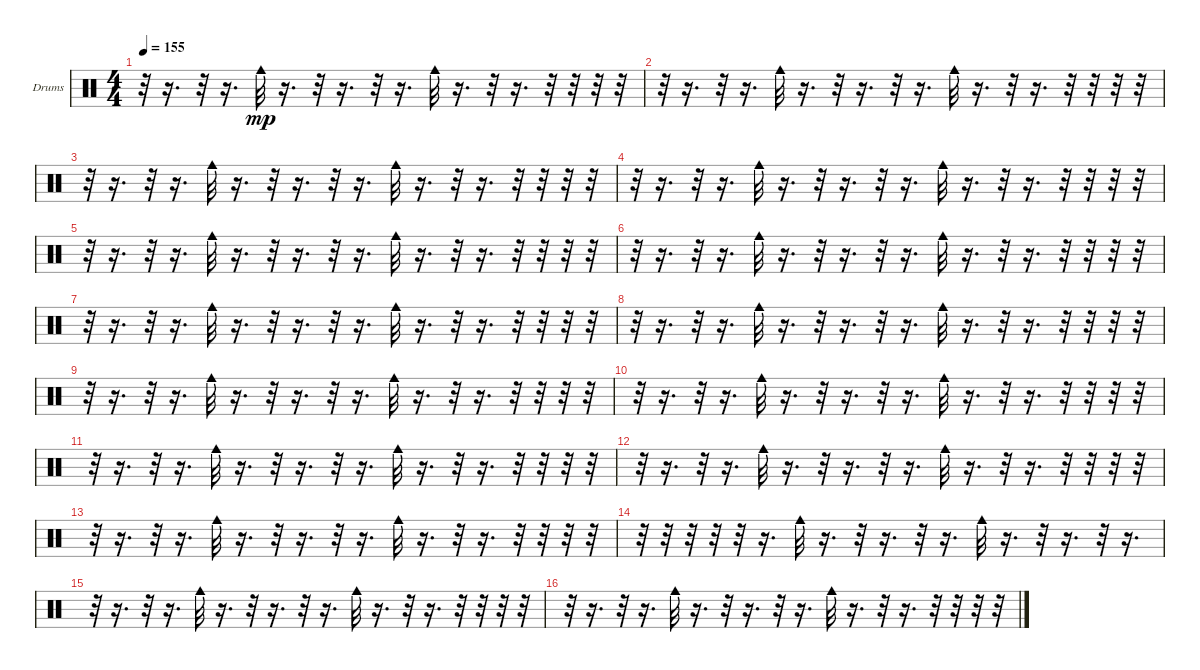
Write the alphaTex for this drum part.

\bracketExtendMode groupsimilarinstruments
\firstSystemTrackNameOrientation horizontal
\otherSystemsTrackNameOrientation horizontal
\track ("Е. Кулаков" "Drums") {instrument percussion}
\staff {score}
\articulation defaults
\ts (4 4)
\tempo 155
\clef neutral
\ks c
r.32{dy mp} r.16{d} r.32 r.16{d} "Cowbell medium (hit)".32 r.16{d} r.32 r.16{d} r.32 r.16{d} "Cowbell medium (hit)".32 r.16{d} r.32 r.16{d} r.32 r.32 r.32 r.32 |
r.32 r.16{d} r.32 r.16{d} "Cowbell medium (hit)".32 r.16{d} r.32 r.16{d} r.32 r.16{d} "Cowbell medium (hit)".32 r.16{d} r.32 r.16{d} r.32 r.32 r.32 r.32 |
r.32 r.16{d} r.32 r.16{d} "Cowbell medium (hit)".32 r.16{d} r.32 r.16{d} r.32 r.16{d} "Cowbell medium (hit)".32 r.16{d} r.32 r.16{d} r.32 r.32 r.32 r.32 |
r.32 r.16{d} r.32 r.16{d} "Cowbell medium (hit)".32 r.16{d} r.32 r.16{d} r.32 r.16{d} "Cowbell medium (hit)".32 r.16{d} r.32 r.16{d} r.32 r.32 r.32 r.32 |
r.32 r.16{d} r.32 r.16{d} "Cowbell medium (hit)".32 r.16{d} r.32 r.16{d} r.32 r.16{d} "Cowbell medium (hit)".32 r.16{d} r.32 r.16{d} r.32 r.32 r.32 r.32 |
r.32 r.16{d} r.32 r.16{d} "Cowbell medium (hit)".32 r.16{d} r.32 r.16{d} r.32 r.16{d} "Cowbell medium (hit)".32 r.16{d} r.32 r.16{d} r.32 r.32 r.32 r.32 |
r.32 r.16{d} r.32 r.16{d} "Cowbell medium (hit)".32 r.16{d} r.32 r.16{d} r.32 r.16{d} "Cowbell medium (hit)".32 r.16{d} r.32 r.16{d} r.32 r.32 r.32 r.32 |
r.32 r.16{d} r.32 r.16{d} "Cowbell medium (hit)".32 r.16{d} r.32 r.16{d} r.32 r.16{d} "Cowbell medium (hit)".32 r.16{d} r.32 r.16{d} r.32 r.32 r.32 r.32 |
r.32 r.16{d} r.32 r.16{d} "Cowbell medium (hit)".32 r.16{d} r.32 r.16{d} r.32 r.16{d} "Cowbell medium (hit)".32 r.16{d} r.32 r.16{d} r.32 r.32 r.32 r.32 |
r.32 r.16{d} r.32 r.16{d} "Cowbell medium (hit)".32 r.16{d} r.32 r.16{d} r.32 r.16{d} "Cowbell medium (hit)".32 r.16{d} r.32 r.16{d} r.32 r.32 r.32 r.32 |
r.32 r.16{d} r.32 r.16{d} "Cowbell medium (hit)".32 r.16{d} r.32 r.16{d} r.32 r.16{d} "Cowbell medium (hit)".32 r.16{d} r.32 r.16{d} r.32 r.32 r.32 r.32 |
r.32 r.16{d} r.32 r.16{d} "Cowbell medium (hit)".32 r.16{d} r.32 r.16{d} r.32 r.16{d} "Cowbell medium (hit)".32 r.16{d} r.32 r.16{d} r.32 r.32 r.32 r.32 |
r.32 r.16{d} r.32 r.16{d} "Cowbell medium (hit)".32 r.16{d} r.32 r.16{d} r.32 r.16{d} "Cowbell medium (hit)".32 r.16{d} r.32 r.16{d} r.32 r.32 r.32 r.32 |
r.32 r.32 r.32 r.32 r.32 r.16{d} "Cowbell medium (hit)".32 r.16{d} r.32 r.16{d} r.32 r.16{d} "Cowbell medium (hit)".32 r.16{d} r.32 r.16{d} r.32 r.16{d} |
r.32 r.16{d} r.32 r.16{d} "Cowbell medium (hit)".32 r.16{d} r.32 r.16{d} r.32 r.16{d} "Cowbell medium (hit)".32 r.16{d} r.32 r.16{d} r.32 r.32 r.32 r.32 |
r.32 r.16{d} r.32 r.16{d} "Cowbell medium (hit)".32 r.16{d} r.32 r.16{d} r.32 r.16{d} "Cowbell medium (hit)".32 r.16{d} r.32 r.16{d} r.32 r.32 r.32 r.32
